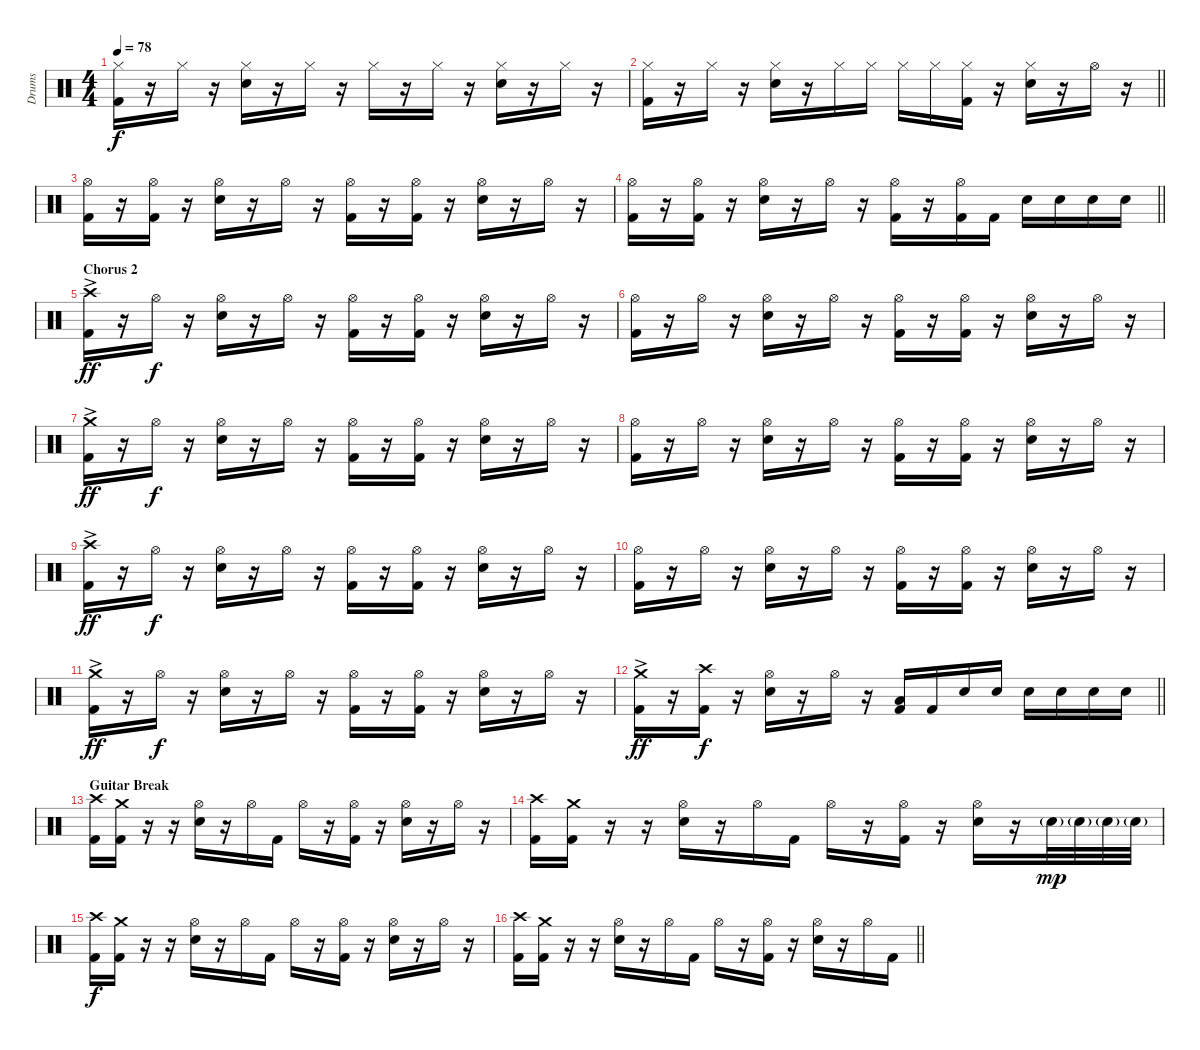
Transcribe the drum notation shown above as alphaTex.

\track ("Drums" "Drums") {instrument percussion}
\staff {score}
\articulation defaults
\ts (4 4)
\tempo 78
\clef neutral
\ks c
("Hi-Hat (closed)" "Kick (hit) 2").16{dy f} r.16 "Hi-Hat (closed)".16 r.16 ("Hi-Hat (closed)" "Snare (hit) 2").16 r.16 "Hi-Hat (closed)".16 r.16 "Hi-Hat (closed)".16 r.16 "Hi-Hat (closed)".16 r.16 ("Hi-Hat (closed)" "Snare (hit) 2").16 r.16 "Hi-Hat (closed)".16 r.16 |
\barLineRight lightlight
("Hi-Hat (closed)" "Kick (hit) 2").16 r.16 "Hi-Hat (closed)".16 r.16 ("Hi-Hat (closed)" "Snare (hit) 2").16 r.16 "Hi-Hat (closed)".16 "Hi-Hat (closed)".16 "Hi-Hat (closed)".16 "Hi-Hat (closed)".16 ("Hi-Hat (closed)" "Kick (hit) 2").16 r.16 ("Hi-Hat (closed)" "Snare (hit) 2").16 r.16 "Hi-Hat (open)".16 r.16 |
("Hi-Hat (open)" "Kick (hit) 2").16{volume 12} r.16 ("Hi-Hat (open)" "Kick (hit) 2").16 r.16 ("Hi-Hat (open)" "Snare (hit) 2").16 r.16 "Hi-Hat (open)".16 r.16 ("Hi-Hat (open)" "Kick (hit) 2").16 r.16 ("Hi-Hat (open)" "Kick (hit) 2").16 r.16 ("Hi-Hat (open)" "Snare (hit) 2").16 r.16 "Hi-Hat (open)".16 r.16 |
\barLineRight lightlight
("Hi-Hat (open)" "Kick (hit) 2").16 r.16 ("Hi-Hat (open)" "Kick (hit) 2").16 r.16 ("Hi-Hat (open)" "Snare (hit) 2").16 r.16 "Hi-Hat (open)".16 r.16 ("Hi-Hat (open)" "Kick (hit) 2").16 r.16 ("Hi-Hat (open)" "Kick (hit) 2").16 "Kick (hit) 2".16 "Snare (hit) 2".16 "Snare (hit) 2".16 "Snare (hit) 2".16 "Snare (hit) 2".16 |
\section ("" "Chorus 2")
("Crash high (hit)"{ac} "Kick (hit) 2").16{dy ff} r.16 "Hi-Hat (open)".16{dy f} r.16 ("Hi-Hat (open)" "Snare (hit) 2").16 r.16 "Hi-Hat (open)".16 r.16 ("Hi-Hat (open)" "Kick (hit) 2").16 r.16 ("Hi-Hat (open)" "Kick (hit) 2").16 r.16 ("Hi-Hat (open)" "Snare (hit) 2").16 r.16 "Hi-Hat (open)".16 r.16 |
("Hi-Hat (open)" "Kick (hit) 2").16 r.16 "Hi-Hat (open)".16 r.16 ("Hi-Hat (open)" "Snare (hit) 2").16 r.16 "Hi-Hat (open)".16 r.16 ("Hi-Hat (open)" "Kick (hit) 2").16 r.16 ("Hi-Hat (open)" "Kick (hit) 2").16 r.16 ("Hi-Hat (open)" "Snare (hit) 2").16 r.16 "Hi-Hat (open)".16 r.16 |
("Crash medium (hit)"{ac} "Kick (hit) 2").16{dy ff} r.16 "Hi-Hat (open)".16{dy f} r.16 ("Hi-Hat (open)" "Snare (hit) 2").16 r.16 "Hi-Hat (open)".16 r.16 ("Hi-Hat (open)" "Kick (hit) 2").16 r.16 ("Hi-Hat (open)" "Kick (hit) 2").16 r.16 ("Hi-Hat (open)" "Snare (hit) 2").16 r.16 "Hi-Hat (open)".16 r.16 |
("Hi-Hat (open)" "Kick (hit) 2").16 r.16 "Hi-Hat (open)".16 r.16 ("Hi-Hat (open)" "Snare (hit) 2").16 r.16 "Hi-Hat (open)".16 r.16 ("Hi-Hat (open)" "Kick (hit) 2").16 r.16 ("Hi-Hat (open)" "Kick (hit) 2").16 r.16 ("Hi-Hat (open)" "Snare (hit) 2").16 r.16 "Hi-Hat (open)".16 r.16 |
("Crash high (hit)"{ac} "Kick (hit) 2").16{dy ff} r.16 "Hi-Hat (open)".16{dy f} r.16 ("Hi-Hat (open)" "Snare (hit) 2").16 r.16 "Hi-Hat (open)".16 r.16 ("Hi-Hat (open)" "Kick (hit) 2").16 r.16 ("Hi-Hat (open)" "Kick (hit) 2").16 r.16 ("Hi-Hat (open)" "Snare (hit) 2").16 r.16 "Hi-Hat (open)".16 r.16 |
("Hi-Hat (open)" "Kick (hit) 2").16 r.16 "Hi-Hat (open)".16 r.16 ("Hi-Hat (open)" "Snare (hit) 2").16 r.16 "Hi-Hat (open)".16 r.16 ("Hi-Hat (open)" "Kick (hit) 2").16 r.16 ("Hi-Hat (open)" "Kick (hit) 2").16 r.16 ("Hi-Hat (open)" "Snare (hit) 2").16 r.16 "Hi-Hat (open)".16 r.16 |
("Crash medium (hit)"{ac} "Kick (hit) 2").16{dy ff} r.16 "Hi-Hat (open)".16{dy f} r.16 ("Hi-Hat (open)" "Snare (hit) 2").16 r.16 "Hi-Hat (open)".16 r.16 ("Hi-Hat (open)" "Kick (hit) 2").16 r.16 ("Hi-Hat (open)" "Kick (hit) 2").16 r.16 ("Hi-Hat (open)" "Snare (hit) 2").16 r.16 "Hi-Hat (open)".16 r.16 |
\barLineRight lightlight
("Crash medium (hit)"{ac} "Kick (hit) 2").16{dy ff} r.16 ("Crash high (hit)" "Kick (hit) 2").16{dy f} r.16 ("Hi-Hat (open)" "Snare (hit) 2").16 r.16 "Hi-Hat (open)".16 r.16 ("Low Floor Tom (hit)" "Kick (hit) 2").16 "Kick (hit) 2".16 "Snare (hit) 2".16{volume 12} "Snare (hit) 2".16 "Snare (hit) 2".16 "Snare (hit) 2".16 "Snare (hit) 2".16 "Snare (hit) 2".16 |
\section ("" "Guitar Break")
("Crash high (hit)" "Kick (hit) 2").16 ("Crash medium (hit)" "Kick (hit) 2").16 r.16 r.16 ("Hi-Hat (open)" "Snare (hit) 2").16 r.16 "Hi-Hat (open)".16 "Kick (hit) 2".16 "Hi-Hat (open)".16 r.16 ("Hi-Hat (open)" "Kick (hit) 2").16 r.16 ("Hi-Hat (open)" "Snare (hit) 2").16 r.16 "Hi-Hat (open)".16 r.16 |
("Crash high (hit)" "Kick (hit) 2").16 ("Crash medium (hit)" "Kick (hit) 2").16 r.16 r.16 ("Hi-Hat (open)" "Snare (hit) 2").16 r.16 "Hi-Hat (open)".16 "Kick (hit) 2".16 "Hi-Hat (open)".16 r.16 ("Hi-Hat (open)" "Kick (hit) 2").16 r.16 ("Hi-Hat (open)" "Snare (hit) 2").16 r.16 "Snare (hit) 2"{g}.32{dy mp} "Snare (hit) 2"{g}.32 "Snare (hit) 2"{g}.32 "Snare (hit) 2"{g}.32 |
("Crash high (hit)" "Kick (hit) 2").16{dy f} ("Crash medium (hit)" "Kick (hit) 2").16 r.16 r.16 ("Hi-Hat (open)" "Snare (hit) 2").16 r.16 "Hi-Hat (open)".16 "Kick (hit) 2".16 "Hi-Hat (open)".16 r.16 ("Hi-Hat (open)" "Kick (hit) 2").16 r.16 ("Hi-Hat (open)" "Snare (hit) 2").16 r.16 "Hi-Hat (open)".16 r.16 |
\barLineRight lightlight
("Crash high (hit)" "Kick (hit) 2").16 ("Crash medium (hit)" "Kick (hit) 2").16 r.16 r.16 ("Hi-Hat (open)" "Snare (hit) 2").16 r.16 "Hi-Hat (open)".16 "Kick (hit) 2".16 "Hi-Hat (open)".16 r.16 ("Hi-Hat (open)" "Kick (hit) 2").16 r.16 ("Hi-Hat (open)" "Snare (hit) 2").16 r.16 "Hi-Hat (open)".16 "Kick (hit) 2".16
